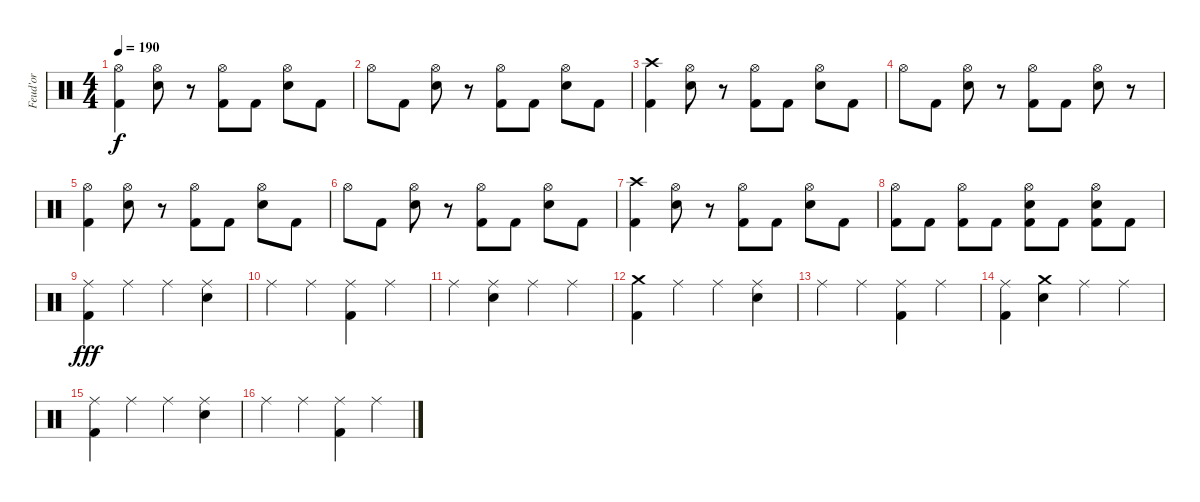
\track ("Feud'or" "Feud'or") {instrument percussion}
\staff {score}
\articulation defaults
\ts (4 4)
\tempo 190
\clef neutral
\ks c
("Hi-Hat (open)" "Kick (hit) 2").4{dy f} ("Hi-Hat (open)" "Snare (hit) 2").8 r.8 ("Hi-Hat (open)" "Kick (hit) 2").8 "Kick (hit) 2".8 ("Hi-Hat (open)" "Snare (hit) 2").8 "Kick (hit) 2".8 |
"Hi-Hat (open)".8 "Kick (hit) 2".8 ("Hi-Hat (open)" "Snare (hit) 2").8 r.8 ("Hi-Hat (open)" "Kick (hit) 2").8 "Kick (hit) 2".8 ("Hi-Hat (open)" "Snare (hit) 2").8 "Kick (hit) 2".8 |
("Crash high (hit)" "Kick (hit) 2").4 ("Hi-Hat (open)" "Snare (hit) 2").8 r.8 ("Hi-Hat (open)" "Kick (hit) 2").8 "Kick (hit) 2".8 ("Hi-Hat (open)" "Snare (hit) 2").8 "Kick (hit) 2".8 |
"Hi-Hat (open)".8 "Kick (hit) 2".8 ("Hi-Hat (open)" "Snare (hit) 2").8 r.8 ("Hi-Hat (open)" "Kick (hit) 2").8 "Kick (hit) 2".8 ("Hi-Hat (open)" "Snare (hit) 2").8 r.8 |
("Hi-Hat (open)" "Kick (hit) 2").4 ("Hi-Hat (open)" "Snare (hit) 2").8 r.8 ("Hi-Hat (open)" "Kick (hit) 2").8 "Kick (hit) 2".8 ("Hi-Hat (open)" "Snare (hit) 2").8 "Kick (hit) 2".8 |
"Hi-Hat (open)".8 "Kick (hit) 2".8 ("Hi-Hat (open)" "Snare (hit) 2").8 r.8 ("Hi-Hat (open)" "Kick (hit) 2").8 "Kick (hit) 2".8 ("Hi-Hat (open)" "Snare (hit) 2").8 "Kick (hit) 2".8 |
("Crash high (hit)" "Kick (hit) 2").4 ("Hi-Hat (open)" "Snare (hit) 2").8 r.8 ("Hi-Hat (open)" "Kick (hit) 2").8 "Kick (hit) 2".8 ("Hi-Hat (open)" "Snare (hit) 2").8 "Kick (hit) 2".8 |
("Hi-Hat (open)" "Kick (hit) 2").8 "Kick (hit) 2".8 ("Hi-Hat (open)" "Kick (hit) 2").8 "Kick (hit) 2".8 ("Hi-Hat (open)" "Snare (hit) 2" "Kick (hit) 2").8 "Kick (hit) 2".8 ("Hi-Hat (open)" "Snare (hit) 2" "Kick (hit) 2").8 "Kick (hit) 2".8 |
("Ride (middle)" "Kick (hit) 2").4{dy fff} "Ride (middle)".4 "Ride (middle)".4 ("Ride (middle)" "Snare (hit) 2").4 |
"Ride (middle)".4 "Ride (middle)".4 ("Ride (middle)" "Kick (hit) 2").4 "Ride (middle)".4 |
"Ride (middle)".4 ("Ride (middle)" "Snare (hit) 2").4 "Ride (middle)".4 "Ride (middle)".4 |
("Crash medium (hit)" "Kick (hit) 2").4 "Ride (middle)".4 "Ride (middle)".4 ("Ride (middle)" "Snare (hit) 2").4 |
"Ride (middle)".4 "Ride (middle)".4 ("Ride (middle)" "Kick (hit) 2").4 "Ride (middle)".4 |
("Ride (middle)" "Kick (hit) 2").4 ("Crash medium (hit)" "Snare (hit) 2").4 "Ride (middle)".4 "Ride (middle)".4 |
("Ride (middle)" "Kick (hit) 2").4 "Ride (middle)".4 "Ride (middle)".4 ("Ride (middle)" "Snare (hit) 2").4 |
"Ride (middle)".4 "Ride (middle)".4 ("Ride (middle)" "Kick (hit) 2").4 "Ride (middle)".4
